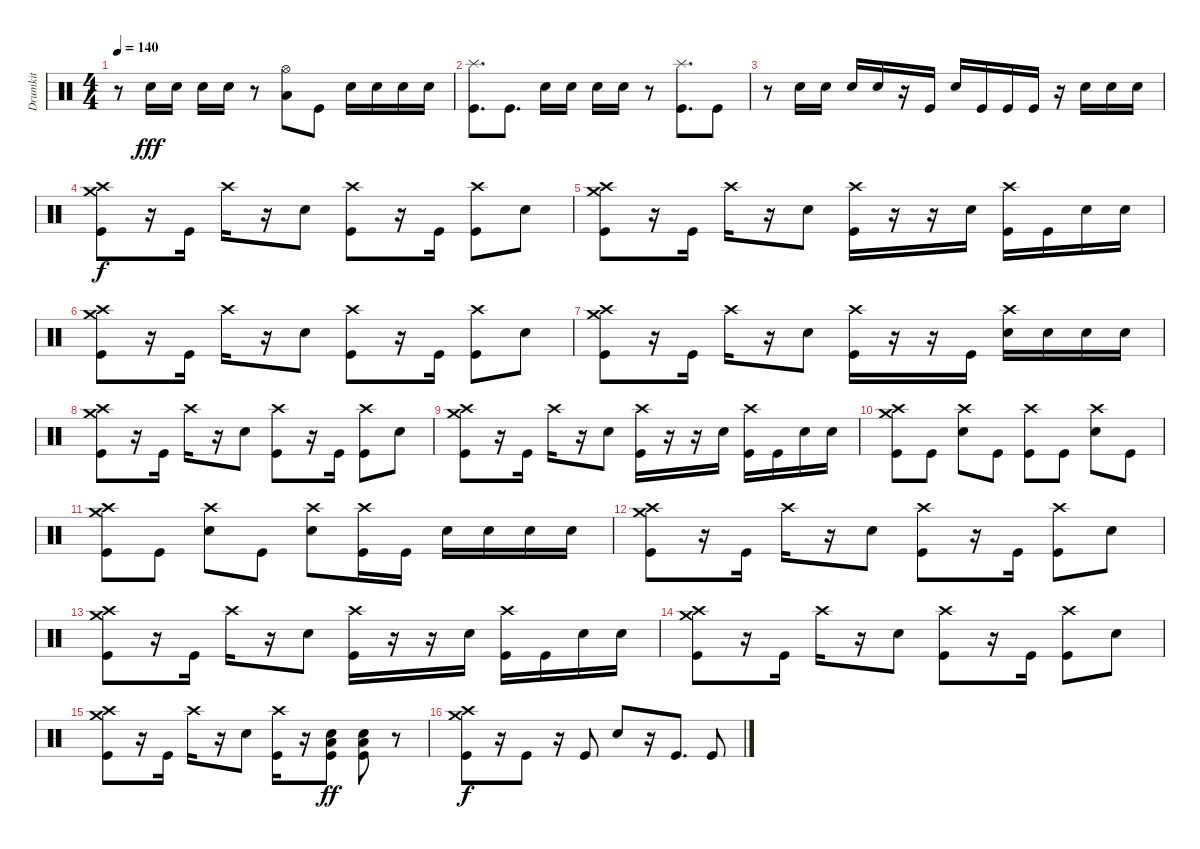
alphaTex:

\track ("Drumkit" "Drumkit") {instrument percussion}
\staff {score}
\articulation defaults
\ts (4 4)
\tempo 140
\clef neutral
\ks c
r.8{dy fff} "Snare (hit) 2".16 "Snare (hit) 2".16 "Snare (hit) 2".16 "Snare (hit) 2".16 r.8 ("Low Floor Tom (hit)" "Hi-Hat (open)").8 "Kick (hit)".8 "Snare (hit) 2".16 "Snare (hit) 2".16 "Snare (hit) 2".16 "Snare (hit) 2".16 |
("Kick (hit)" "Splash (hit)").8{d} "Kick (hit)".8{d} "Snare (hit) 2".16 "Snare (hit) 2".16 "Snare (hit) 2".16 "Snare (hit) 2".16 r.8 ("Kick (hit)" "Splash (hit)").8{d} "Kick (hit)".8 |
r.8 "Snare (hit) 2".16 "Snare (hit) 2".16 "Snare (hit) 2".16 "Snare (hit) 2".16 r.16 "Kick (hit)".16 "Snare (hit) 2".16 "Kick (hit)".16 "Kick (hit)".16 "Kick (hit)".16 r.16 "Snare (hit) 2".16 "Snare (hit) 2".16 "Snare (hit) 2".16 |
("Crash high (hit)" "Crash medium (hit)" "Kick (hit)").8{dy f} r.16 "Kick (hit)".16 "Crash high (hit)".16 r.16 "Snare (hit) 2".8 ("Kick (hit)" "Crash high (hit)").8 r.16 "Kick (hit)".16 ("Kick (hit)" "Crash high (hit)").8 "Snare (hit) 2".8 |
("Crash high (hit)" "Crash medium (hit)" "Kick (hit)").8 r.16 "Kick (hit)".16 "Crash high (hit)".16 r.16 "Snare (hit) 2".8 ("Kick (hit)" "Crash high (hit)").16 r.16 r.16 "Snare (hit) 2".16 ("Kick (hit)" "Crash high (hit)").16 "Kick (hit)".16 "Snare (hit) 2".16 "Snare (hit) 2".16 |
("Crash high (hit)" "Crash medium (hit)" "Kick (hit)").8 r.16 "Kick (hit)".16 "Crash high (hit)".16 r.16 "Snare (hit) 2".8 ("Kick (hit)" "Crash high (hit)").8 r.16 "Kick (hit)".16 ("Kick (hit)" "Crash high (hit)").8 "Snare (hit) 2".8 |
("Crash high (hit)" "Crash medium (hit)" "Kick (hit)").8 r.16 "Kick (hit)".16 "Crash high (hit)".16 r.16 "Snare (hit) 2".8 ("Kick (hit)" "Crash high (hit)").16 r.16 r.16 "Kick (hit)".16 ("Crash high (hit)" "Snare (hit) 2").16 "Snare (hit) 2".16 "Snare (hit) 2".16 "Snare (hit) 2".16 |
("Crash high (hit)" "Crash medium (hit)" "Kick (hit)").8 r.16 "Kick (hit)".16 "Crash high (hit)".16 r.16 "Snare (hit) 2".8 ("Kick (hit)" "Crash high (hit)").8 r.16 "Kick (hit)".16 ("Kick (hit)" "Crash high (hit)").8 "Snare (hit) 2".8 |
("Crash high (hit)" "Crash medium (hit)" "Kick (hit)").8 r.16 "Kick (hit)".16 "Crash high (hit)".16 r.16 "Snare (hit) 2".8 ("Kick (hit)" "Crash high (hit)").16 r.16 r.16 "Snare (hit) 2".16 ("Kick (hit)" "Crash high (hit)").16 "Kick (hit)".16 "Snare (hit) 2".16 "Snare (hit) 2".16 |
("Crash high (hit)" "Crash medium (hit)" "Kick (hit)").8 "Kick (hit)".8 ("Snare (hit) 2" "Crash high (hit)").8 "Kick (hit)".8 ("Kick (hit)" "Crash high (hit)").8 "Kick (hit)".8 ("Snare (hit) 2" "Crash high (hit)").8 "Kick (hit)".8 |
("Crash high (hit)" "Crash medium (hit)" "Kick (hit)").8 "Kick (hit)".8 ("Snare (hit) 2" "Crash high (hit)").8 "Kick (hit)".8 ("Crash high (hit)" "Snare (hit) 2").8 ("Crash high (hit)" "Kick (hit)").16 "Kick (hit)".16 "Snare (hit) 2".16 "Snare (hit) 2".16 "Snare (hit) 2".16 "Snare (hit) 2".16 |
("Crash high (hit)" "Crash medium (hit)" "Kick (hit)").8 r.16 "Kick (hit)".16 "Crash high (hit)".16 r.16 "Snare (hit) 2".8 ("Kick (hit)" "Crash high (hit)").8 r.16 "Kick (hit)".16 ("Kick (hit)" "Crash high (hit)").8 "Snare (hit) 2".8 |
("Crash high (hit)" "Crash medium (hit)" "Kick (hit)").8 r.16 "Kick (hit)".16 "Crash high (hit)".16 r.16 "Snare (hit) 2".8 ("Kick (hit)" "Crash high (hit)").16 r.16 r.16 "Snare (hit) 2".16 ("Kick (hit)" "Crash high (hit)").16 "Kick (hit)".16 "Snare (hit) 2".16 "Snare (hit) 2".16 |
("Crash high (hit)" "Crash medium (hit)" "Kick (hit)").8 r.16 "Kick (hit)".16 "Crash high (hit)".16 r.16 "Snare (hit) 2".8 ("Kick (hit)" "Crash high (hit)").8 r.16 "Kick (hit)".16 ("Kick (hit)" "Crash high (hit)").8 "Snare (hit) 2".8 |
("Crash high (hit)" "Crash medium (hit)" "Kick (hit)").8 r.16 "Kick (hit)".16 "Crash high (hit)".16 r.16 "Snare (hit) 2".8 ("Kick (hit)" "Crash high (hit)").16 r.16 ("Snare (hit) 2" "Low Tom (hit)" "Kick (hit)").8{dy ff} ("Kick (hit)" "Low Tom (hit)" "Snare (hit) 2").8 r.8 |
("Crash high (hit)" "Crash medium (hit)" "Kick (hit)").8{dy f} r.16 "Kick (hit)".8 r.16 "Kick (hit)".8 "Snare (hit) 2".8 r.16 "Kick (hit)".8{d} "Kick (hit)".8
